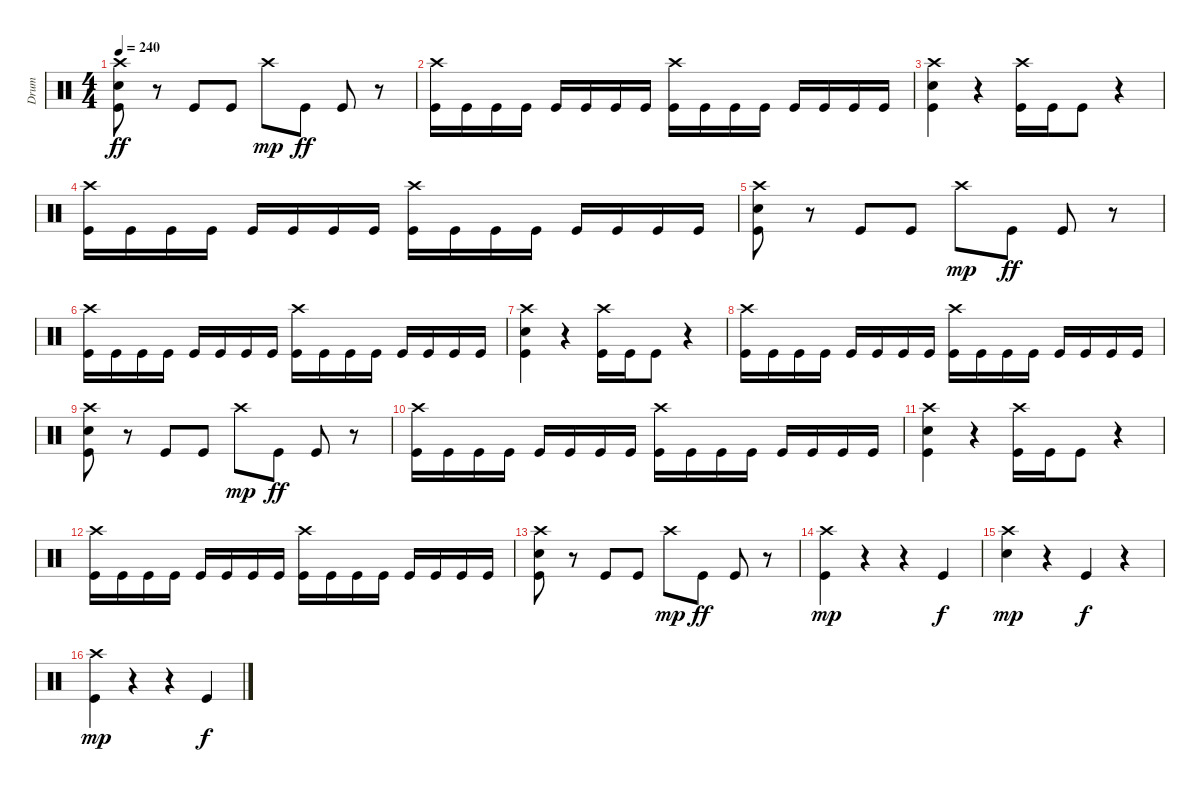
\track ("Drum" "Drum") {instrument percussion}
\staff {score}
\articulation defaults
\ts (4 4)
\tempo 240
\clef neutral
\ks c
("Crash high (hit)" "Electric Snare (hit)" "Kick (hit)").8{dy ff} r.8 "Kick (hit)".8 "Kick (hit)".8 "Crash high (hit)".8{dy mp} "Kick (hit)".8{dy ff} "Kick (hit)".8 r.8 |
("Crash high (hit)" "Kick (hit)").16 "Kick (hit)".16 "Kick (hit)".16 "Kick (hit)".16 "Kick (hit)".16 "Kick (hit)".16 "Kick (hit)".16 "Kick (hit)".16 ("Crash high (hit)" "Kick (hit)").16 "Kick (hit)".16 "Kick (hit)".16 "Kick (hit)".16 "Kick (hit)".16 "Kick (hit)".16 "Kick (hit)".16 "Kick (hit)".16 |
("Crash high (hit)" "Electric Snare (hit)" "Kick (hit)").4 r.4 ("Crash high (hit)" "Kick (hit)").16 "Kick (hit)".16 "Kick (hit)".8 r.4 |
("Crash high (hit)" "Kick (hit)").16 "Kick (hit)".16 "Kick (hit)".16 "Kick (hit)".16 "Kick (hit)".16 "Kick (hit)".16 "Kick (hit)".16 "Kick (hit)".16 ("Crash high (hit)" "Kick (hit)").16 "Kick (hit)".16 "Kick (hit)".16 "Kick (hit)".16 "Kick (hit)".16 "Kick (hit)".16 "Kick (hit)".16 "Kick (hit)".16 |
("Crash high (hit)" "Electric Snare (hit)" "Kick (hit)").8 r.8 "Kick (hit)".8 "Kick (hit)".8 "Crash high (hit)".8{dy mp} "Kick (hit)".8{dy ff} "Kick (hit)".8 r.8 |
("Crash high (hit)" "Kick (hit)").16 "Kick (hit)".16 "Kick (hit)".16 "Kick (hit)".16 "Kick (hit)".16 "Kick (hit)".16 "Kick (hit)".16 "Kick (hit)".16 ("Crash high (hit)" "Kick (hit)").16 "Kick (hit)".16 "Kick (hit)".16 "Kick (hit)".16 "Kick (hit)".16 "Kick (hit)".16 "Kick (hit)".16 "Kick (hit)".16 |
("Crash high (hit)" "Electric Snare (hit)" "Kick (hit)").4 r.4 ("Crash high (hit)" "Kick (hit)").16 "Kick (hit)".16 "Kick (hit)".8 r.4 |
("Crash high (hit)" "Kick (hit)").16 "Kick (hit)".16 "Kick (hit)".16 "Kick (hit)".16 "Kick (hit)".16 "Kick (hit)".16 "Kick (hit)".16 "Kick (hit)".16 ("Crash high (hit)" "Kick (hit)").16 "Kick (hit)".16 "Kick (hit)".16 "Kick (hit)".16 "Kick (hit)".16 "Kick (hit)".16 "Kick (hit)".16 "Kick (hit)".16 |
("Crash high (hit)" "Electric Snare (hit)" "Kick (hit)").8 r.8 "Kick (hit)".8 "Kick (hit)".8 "Crash high (hit)".8{dy mp} "Kick (hit)".8{dy ff} "Kick (hit)".8 r.8 |
("Crash high (hit)" "Kick (hit)").16 "Kick (hit)".16 "Kick (hit)".16 "Kick (hit)".16 "Kick (hit)".16 "Kick (hit)".16 "Kick (hit)".16 "Kick (hit)".16 ("Crash high (hit)" "Kick (hit)").16 "Kick (hit)".16 "Kick (hit)".16 "Kick (hit)".16 "Kick (hit)".16 "Kick (hit)".16 "Kick (hit)".16 "Kick (hit)".16 |
("Crash high (hit)" "Electric Snare (hit)" "Kick (hit)").4 r.4 ("Crash high (hit)" "Kick (hit)").16 "Kick (hit)".16 "Kick (hit)".8 r.4 |
("Crash high (hit)" "Kick (hit)").16 "Kick (hit)".16 "Kick (hit)".16 "Kick (hit)".16 "Kick (hit)".16 "Kick (hit)".16 "Kick (hit)".16 "Kick (hit)".16 ("Crash high (hit)" "Kick (hit)").16 "Kick (hit)".16 "Kick (hit)".16 "Kick (hit)".16 "Kick (hit)".16 "Kick (hit)".16 "Kick (hit)".16 "Kick (hit)".16 |
("Crash high (hit)" "Electric Snare (hit)" "Kick (hit)").8 r.8 "Kick (hit)".8 "Kick (hit)".8 "Crash high (hit)".8{dy mp} "Kick (hit)".8{dy ff} "Kick (hit)".8 r.8 |
("Crash high (hit)" "Kick (hit)").4{dy mp} r.4 r.4 "Kick (hit)".4{dy f} |
("Crash high (hit)" "Electric Snare (hit)").4{dy mp} r.4 "Kick (hit)".4{dy f} r.4 |
("Crash high (hit)" "Kick (hit)").4{dy mp} r.4 r.4 "Kick (hit)".4{dy f}
